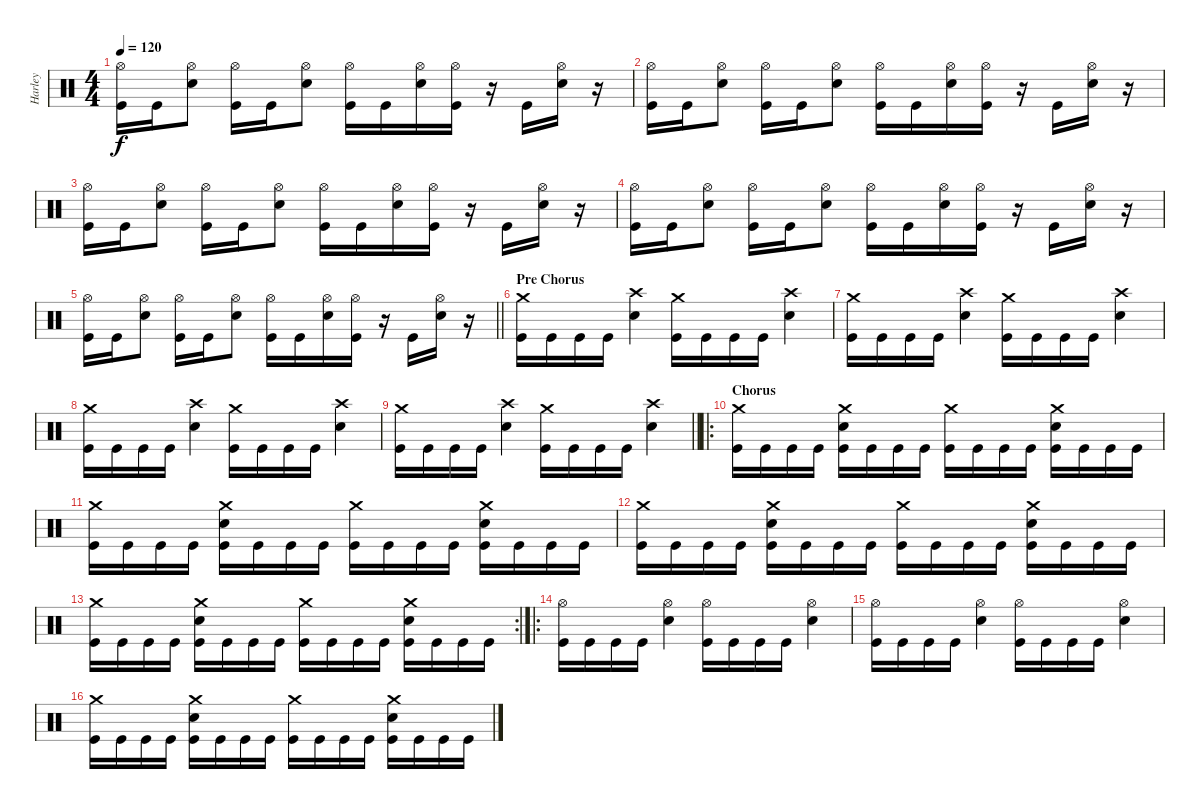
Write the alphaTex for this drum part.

\track ("Harley" "Harley") {instrument percussion}
\staff {score}
\articulation defaults
\ts (4 4)
\tempo 120
\clef neutral
\ks c
("Hi-Hat (open)" "Kick (hit)").16{dy f} "Kick (hit)".16 ("Hi-Hat (open)" "Snare (hit) 2").8 ("Hi-Hat (open)" "Kick (hit)").16 "Kick (hit)".16 ("Hi-Hat (open)" "Snare (hit) 2").8 ("Hi-Hat (open)" "Kick (hit)").16 "Kick (hit)".16 ("Hi-Hat (open)" "Snare (hit) 2").16 ("Hi-Hat (open)" "Kick (hit)").16 r.16 "Kick (hit)".16 ("Hi-Hat (open)" "Snare (hit) 2").16 r.16 |
("Hi-Hat (open)" "Kick (hit)").16 "Kick (hit)".16 ("Hi-Hat (open)" "Snare (hit) 2").8 ("Hi-Hat (open)" "Kick (hit)").16 "Kick (hit)".16 ("Hi-Hat (open)" "Snare (hit) 2").8 ("Hi-Hat (open)" "Kick (hit)").16 "Kick (hit)".16 ("Hi-Hat (open)" "Snare (hit) 2").16 ("Hi-Hat (open)" "Kick (hit)").16 r.16 "Kick (hit)".16 ("Hi-Hat (open)" "Snare (hit) 2").16 r.16 |
("Hi-Hat (open)" "Kick (hit)").16 "Kick (hit)".16 ("Hi-Hat (open)" "Snare (hit) 2").8 ("Hi-Hat (open)" "Kick (hit)").16 "Kick (hit)".16 ("Hi-Hat (open)" "Snare (hit) 2").8 ("Hi-Hat (open)" "Kick (hit)").16 "Kick (hit)".16 ("Hi-Hat (open)" "Snare (hit) 2").16 ("Hi-Hat (open)" "Kick (hit)").16 r.16 "Kick (hit)".16 ("Hi-Hat (open)" "Snare (hit) 2").16 r.16 |
("Hi-Hat (open)" "Kick (hit)").16 "Kick (hit)".16 ("Hi-Hat (open)" "Snare (hit) 2").8 ("Hi-Hat (open)" "Kick (hit)").16 "Kick (hit)".16 ("Hi-Hat (open)" "Snare (hit) 2").8 ("Hi-Hat (open)" "Kick (hit)").16 "Kick (hit)".16 ("Hi-Hat (open)" "Snare (hit) 2").16 ("Hi-Hat (open)" "Kick (hit)").16 r.16 "Kick (hit)".16 ("Hi-Hat (open)" "Snare (hit) 2").16 r.16 |
\barLineRight lightlight
("Hi-Hat (open)" "Kick (hit)").16 "Kick (hit)".16 ("Hi-Hat (open)" "Snare (hit) 2").8 ("Hi-Hat (open)" "Kick (hit)").16 "Kick (hit)".16 ("Hi-Hat (open)" "Snare (hit) 2").8 ("Hi-Hat (open)" "Kick (hit)").16 "Kick (hit)".16 ("Hi-Hat (open)" "Snare (hit) 2").16 ("Hi-Hat (open)" "Kick (hit)").16 r.16 "Kick (hit)".16 ("Hi-Hat (open)" "Snare (hit) 2").16 r.16 |
\section ("" "Pre Chorus")
("Crash medium (hit)" "Kick (hit)").16 "Kick (hit)".16 "Kick (hit)".16 "Kick (hit)".16 ("Crash high (hit)" "Snare (hit) 2").4 ("Crash medium (hit)" "Kick (hit)").16 "Kick (hit)".16 "Kick (hit)".16 "Kick (hit)".16 ("Crash high (hit)" "Snare (hit) 2").4 |
("Crash medium (hit)" "Kick (hit)").16 "Kick (hit)".16 "Kick (hit)".16 "Kick (hit)".16 ("Crash high (hit)" "Snare (hit) 2").4 ("Crash medium (hit)" "Kick (hit)").16 "Kick (hit)".16 "Kick (hit)".16 "Kick (hit)".16 ("Crash high (hit)" "Snare (hit) 2").4 |
("Crash medium (hit)" "Kick (hit)").16 "Kick (hit)".16 "Kick (hit)".16 "Kick (hit)".16 ("Crash high (hit)" "Snare (hit) 2").4 ("Crash medium (hit)" "Kick (hit)").16 "Kick (hit)".16 "Kick (hit)".16 "Kick (hit)".16 ("Crash high (hit)" "Snare (hit) 2").4 |
\barLineRight lightlight
("Crash medium (hit)" "Kick (hit)").16 "Kick (hit)".16 "Kick (hit)".16 "Kick (hit)".16 ("Crash high (hit)" "Snare (hit) 2").4 ("Crash medium (hit)" "Kick (hit)").16 "Kick (hit)".16 "Kick (hit)".16 "Kick (hit)".16 ("Crash high (hit)" "Snare (hit) 2").4 |
\ro
\section ("" "Chorus")
("Crash medium (hit)" "Kick (hit)").16 "Kick (hit)".16 "Kick (hit)".16 "Kick (hit)".16 ("Crash medium (hit)" "Snare (hit) 2" "Kick (hit)").16 "Kick (hit)".16 "Kick (hit)".16 "Kick (hit)".16 ("Crash medium (hit)" "Kick (hit)").16 "Kick (hit)".16 "Kick (hit)".16 "Kick (hit)".16 ("Crash medium (hit)" "Snare (hit) 2" "Kick (hit)").16 "Kick (hit)".16 "Kick (hit)".16 "Kick (hit)".16 |
("Crash medium (hit)" "Kick (hit)").16 "Kick (hit)".16 "Kick (hit)".16 "Kick (hit)".16 ("Crash medium (hit)" "Snare (hit) 2" "Kick (hit)").16 "Kick (hit)".16 "Kick (hit)".16 "Kick (hit)".16 ("Crash medium (hit)" "Kick (hit)").16 "Kick (hit)".16 "Kick (hit)".16 "Kick (hit)".16 ("Crash medium (hit)" "Snare (hit) 2" "Kick (hit)").16 "Kick (hit)".16 "Kick (hit)".16 "Kick (hit)".16 |
("Crash medium (hit)" "Kick (hit)").16 "Kick (hit)".16 "Kick (hit)".16 "Kick (hit)".16 ("Crash medium (hit)" "Snare (hit) 2" "Kick (hit)").16 "Kick (hit)".16 "Kick (hit)".16 "Kick (hit)".16 ("Crash medium (hit)" "Kick (hit)").16 "Kick (hit)".16 "Kick (hit)".16 "Kick (hit)".16 ("Crash medium (hit)" "Snare (hit) 2" "Kick (hit)").16 "Kick (hit)".16 "Kick (hit)".16 "Kick (hit)".16 |
\rc 2
("Crash medium (hit)" "Kick (hit)").16 "Kick (hit)".16 "Kick (hit)".16 "Kick (hit)".16 ("Crash medium (hit)" "Snare (hit) 2" "Kick (hit)").16 "Kick (hit)".16 "Kick (hit)".16 "Kick (hit)".16 ("Crash medium (hit)" "Kick (hit)").16 "Kick (hit)".16 "Kick (hit)".16 "Kick (hit)".16 ("Crash medium (hit)" "Snare (hit) 2" "Kick (hit)").16 "Kick (hit)".16 "Kick (hit)".16 "Kick (hit)".16 |
\ro
("Hi-Hat (open)" "Kick (hit)").16 "Kick (hit)".16 "Kick (hit)".16 "Kick (hit)".16 ("Hi-Hat (open)" "Snare (hit) 2").4 ("Hi-Hat (open)" "Kick (hit)").16 "Kick (hit)".16 "Kick (hit)".16 "Kick (hit)".16 ("Hi-Hat (open)" "Snare (hit) 2").4 |
("Hi-Hat (open)" "Kick (hit)").16 "Kick (hit)".16 "Kick (hit)".16 "Kick (hit)".16 ("Hi-Hat (open)" "Snare (hit) 2").4 ("Hi-Hat (open)" "Kick (hit)").16 "Kick (hit)".16 "Kick (hit)".16 "Kick (hit)".16 ("Hi-Hat (open)" "Snare (hit) 2").4 |
("Crash medium (hit)" "Kick (hit)").16 "Kick (hit)".16 "Kick (hit)".16 "Kick (hit)".16 ("Crash medium (hit)" "Snare (hit) 2" "Kick (hit)").16 "Kick (hit)".16 "Kick (hit)".16 "Kick (hit)".16 ("Crash medium (hit)" "Kick (hit)").16 "Kick (hit)".16 "Kick (hit)".16 "Kick (hit)".16 ("Crash medium (hit)" "Snare (hit) 2" "Kick (hit)").16 "Kick (hit)".16 "Kick (hit)".16 "Kick (hit)".16
